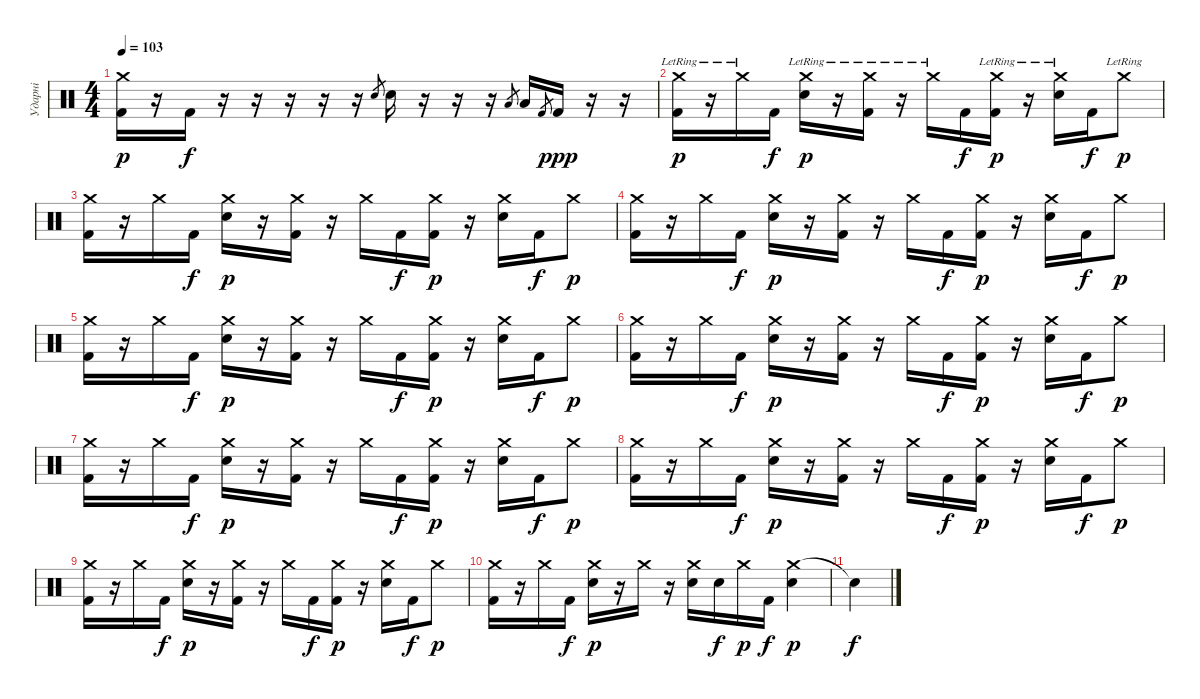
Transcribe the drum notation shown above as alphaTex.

\track ("Ударні" "Ударні") {instrument percussion}
\staff {score}
\articulation defaults
\ts (4 4)
\tempo 103
\clef neutral
\ks c
("Crash medium (hit)" "Kick (hit) 2").16{dy p} r.16 "Kick (hit) 2".16{dy f} r.16 r.16 r.16 r.16 r.16 "Electric Snare (hit)".8{gr} "Electric Snare (hit)".16 r.16 r.16 r.16 "Low Tom (hit)".8{gr} "Low Floor Tom (hit)".16 "Kick (hit) 2".8{gr} "Kick (hit) 2".16{dy ppp} r.16 r.16 |
("Crash medium (hit)"{lr} "Kick (hit) 2").16{dy p} r.16 "Crash medium (hit)"{lr}.16 "Kick (hit) 2".16{dy f} ("Crash medium (hit)"{lr} "Electric Snare (hit)").16{dy p} r.16 ("Crash medium (hit)"{lr} "Kick (hit) 2").16 r.16 "Crash medium (hit)"{lr}.16 "Kick (hit) 2".16{dy f} ("Crash medium (hit)"{lr} "Kick (hit) 2").16{dy p} r.16 ("Crash medium (hit)"{lr} "Electric Snare (hit)").16 "Kick (hit) 2".16{dy f} "Crash medium (hit)"{lr}.8{dy p} |
("Crash medium (hit)" "Kick (hit) 2").16 r.16 "Crash medium (hit)".16 "Kick (hit) 2".16{dy f} ("Crash medium (hit)" "Electric Snare (hit)").16{dy p} r.16 ("Crash medium (hit)" "Kick (hit) 2").16 r.16 "Crash medium (hit)".16 "Kick (hit) 2".16{dy f} ("Crash medium (hit)" "Kick (hit) 2").16{dy p} r.16 ("Crash medium (hit)" "Electric Snare (hit)").16 "Kick (hit) 2".16{dy f} "Crash medium (hit)".8{dy p} |
("Crash medium (hit)" "Kick (hit) 2").16 r.16 "Crash medium (hit)".16 "Kick (hit) 2".16{dy f} ("Crash medium (hit)" "Electric Snare (hit)").16{dy p} r.16 ("Crash medium (hit)" "Kick (hit) 2").16 r.16 "Crash medium (hit)".16 "Kick (hit) 2".16{dy f} ("Crash medium (hit)" "Kick (hit) 2").16{dy p} r.16 ("Crash medium (hit)" "Electric Snare (hit)").16 "Kick (hit) 2".16{dy f} "Crash medium (hit)".8{dy p} |
("Crash medium (hit)" "Kick (hit) 2").16 r.16 "Crash medium (hit)".16 "Kick (hit) 2".16{dy f} ("Crash medium (hit)" "Electric Snare (hit)").16{dy p} r.16 ("Crash medium (hit)" "Kick (hit) 2").16 r.16 "Crash medium (hit)".16 "Kick (hit) 2".16{dy f} ("Crash medium (hit)" "Kick (hit) 2").16{dy p} r.16 ("Crash medium (hit)" "Electric Snare (hit)").16 "Kick (hit) 2".16{dy f} "Crash medium (hit)".8{dy p} |
("Crash medium (hit)" "Kick (hit) 2").16 r.16 "Crash medium (hit)".16 "Kick (hit) 2".16{dy f} ("Crash medium (hit)" "Electric Snare (hit)").16{dy p} r.16 ("Crash medium (hit)" "Kick (hit) 2").16 r.16 "Crash medium (hit)".16 "Kick (hit) 2".16{dy f} ("Crash medium (hit)" "Kick (hit) 2").16{dy p} r.16 ("Crash medium (hit)" "Electric Snare (hit)").16 "Kick (hit) 2".16{dy f} "Crash medium (hit)".8{dy p} |
("Crash medium (hit)" "Kick (hit) 2").16 r.16 "Crash medium (hit)".16 "Kick (hit) 2".16{dy f} ("Crash medium (hit)" "Electric Snare (hit)").16{dy p} r.16 ("Crash medium (hit)" "Kick (hit) 2").16 r.16 "Crash medium (hit)".16 "Kick (hit) 2".16{dy f} ("Crash medium (hit)" "Kick (hit) 2").16{dy p} r.16 ("Crash medium (hit)" "Electric Snare (hit)").16 "Kick (hit) 2".16{dy f} "Crash medium (hit)".8{dy p} |
("Crash medium (hit)" "Kick (hit) 2").16 r.16 "Crash medium (hit)".16 "Kick (hit) 2".16{dy f} ("Crash medium (hit)" "Electric Snare (hit)").16{dy p} r.16 ("Crash medium (hit)" "Kick (hit) 2").16 r.16 "Crash medium (hit)".16 "Kick (hit) 2".16{dy f} ("Crash medium (hit)" "Kick (hit) 2").16{dy p} r.16 ("Crash medium (hit)" "Electric Snare (hit)").16 "Kick (hit) 2".16{dy f} "Crash medium (hit)".8{dy p} |
("Crash medium (hit)" "Kick (hit) 2").16 r.16 "Crash medium (hit)".16 "Kick (hit) 2".16{dy f} ("Crash medium (hit)" "Electric Snare (hit)").16{dy p} r.16 ("Crash medium (hit)" "Kick (hit) 2").16 r.16 "Crash medium (hit)".16 "Kick (hit) 2".16{dy f} ("Crash medium (hit)" "Kick (hit) 2").16{dy p} r.16 ("Crash medium (hit)" "Electric Snare (hit)").16 "Kick (hit) 2".16{dy f} "Crash medium (hit)".8{dy p} |
("Crash medium (hit)" "Kick (hit) 2").16 r.16 "Crash medium (hit)".16 "Kick (hit) 2".16{dy f} ("Crash medium (hit)" "Electric Snare (hit)").16{dy p} r.16 "Crash medium (hit)".16 r.16 ("Crash medium (hit)" "Electric Snare (hit)").16 "Electric Snare (hit)".16{dy f} "Crash medium (hit)".16{dy p} "Kick (hit) 2".16{dy f} ("Crash medium (hit)" "Electric Snare (hit)").4{dy p} |
"Snare (hit)"{t}.4{dy f}
